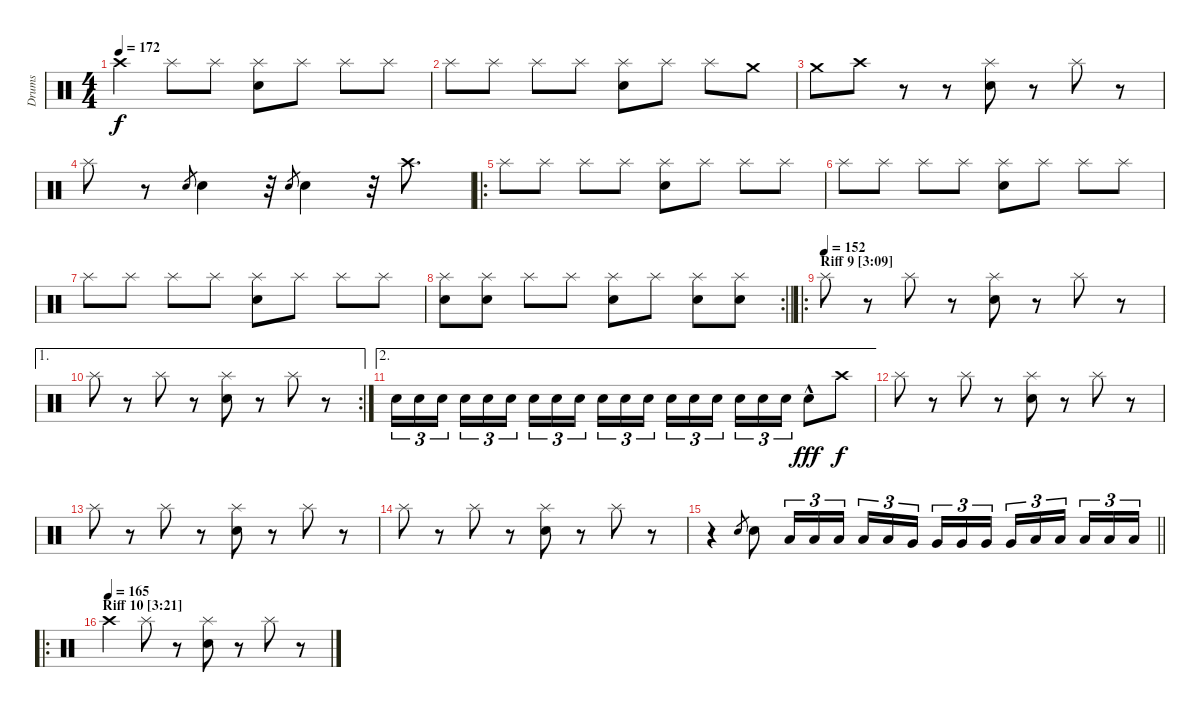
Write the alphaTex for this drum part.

\track ("Drums" "Drums") {instrument percussion}
\staff {score}
\articulation defaults
\ts (4 4)
\tempo 172
\clef neutral
\ks c "Crash high (hit)".4{dy f} "Splash (hit)".8 "Splash (hit)".8
("Splash (hit)" "Electric Snare (hit)").8 "Splash (hit)".8 "Splash (hit)".8 "Splash (hit)".8 |
"Splash (hit)".8 "Splash (hit)".8 "Splash (hit)".8 "Splash (hit)".8 ("Splash (hit)" "Electric Snare (hit)").8 "Splash (hit)".8 "Splash (hit)".8 "Crash medium (hit)".8 |
"Crash medium (hit)".8 "Crash high (hit)".8 r.8 r.8 ("Splash (hit)" "Electric Snare (hit)").8 r.8 "Splash (hit)".8 r.8 |
"Splash (hit)".8 r.8 "Electric Snare (hit)".8{gr} "Electric Snare (hit)".4 r.32 "Electric Snare (hit)".8{gr} "Electric Snare (hit)".4 r.32 "Crash high (hit)".8{d} |
\ro "Splash (hit)".8 "Splash (hit)".8 "Splash (hit)".8 "Splash (hit)".8
("Splash (hit)" "Electric Snare (hit)").8 "Splash (hit)".8 "Splash (hit)".8 "Splash (hit)".8 |
"Splash (hit)".8 "Splash (hit)".8 "Splash (hit)".8 "Splash (hit)".8 ("Splash (hit)" "Electric Snare (hit)").8 "Splash (hit)".8 "Splash (hit)".8 "Splash (hit)".8 |
"Splash (hit)".8 "Splash (hit)".8 "Splash (hit)".8 "Splash (hit)".8 ("Splash (hit)" "Electric Snare (hit)").8 "Splash (hit)".8 "Splash (hit)".8 "Splash (hit)".8 |
\rc 2
\barLineRight lightlight
("Splash (hit)" "Electric Snare (hit)").8 ("Splash (hit)" "Electric Snare (hit)").8 "Splash (hit)".8 "Splash (hit)".8 ("Splash (hit)" "Electric Snare (hit)").8 "Splash (hit)".8 ("Splash (hit)" "Electric Snare (hit)").8 ("Splash (hit)" "Electric Snare (hit)").8 |
\ro
\section ("" "Riff 9 [3:09]")
\tempo (152)
"Splash (hit)".8 r.8 "Splash (hit)".8 r.8 ("Splash (hit)" "Electric Snare (hit)").8 r.8 "Splash (hit)".8 r.8 |
\ae 1
\rc 2 "Splash (hit)".8
r.8 "Splash (hit)".8 r.8 ("Splash (hit)" "Electric Snare (hit)").8 r.8 "Splash (hit)".8 r.8 |
\ae 2 "Electric Snare (hit)".16{tu (3 2)} "Electric Snare (hit)".16{tu (3 2)} "Electric Snare (hit)".16{tu (3 2) beam splitsecondary} "Electric Snare (hit)".16{tu (3 2)} "Electric Snare (hit)".16{tu (3 2)} "Electric Snare (hit)".16{tu (3 2)} "Electric Snare (hit)".16{tu (3 2)} "Electric Snare (hit)".16{tu (3 2)} "Electric Snare (hit)".16{tu (3 2) beam splitsecondary} "Electric Snare (hit)".16{tu (3 2)} "Electric Snare (hit)".16{tu (3 2)} "Electric Snare (hit)".16{tu (3 2)} "Electric Snare (hit)".16{tu (3 2)} "Electric Snare (hit)".16{tu (3 2)} "Electric Snare (hit)".16{tu (3 2) beam splitsecondary} "Electric Snare (hit)".16{tu (3 2)} "Electric Snare (hit)".16{tu (3 2)} "Electric Snare (hit)".16{tu (3 2)} "Electric Snare (hit)"{hac}.8{dy fff} "Crash high (hit)".8{dy f}
|
"Splash (hit)".8 r.8 "Splash (hit)".8 r.8 ("Splash (hit)" "Electric Snare (hit)").8 r.8 "Splash (hit)".8 r.8 |
"Splash (hit)".8 r.8 "Splash (hit)".8 r.8 ("Splash (hit)" "Electric Snare (hit)").8 r.8 "Splash (hit)".8 r.8 |
"Splash (hit)".8 r.8 "Splash (hit)".8 r.8 ("Splash (hit)" "Electric Snare (hit)").8 r.8 "Splash (hit)".8 r.8 |
\barLineRight lightlight
r.4 "Electric Snare (hit)".8{gr} "Electric Snare (hit)".8 "Low Tom (hit)".16{tu (3 2)} "Low Tom (hit)".16{tu (3 2)} "Low Tom (hit)".16{tu (3 2)} "Low Tom (hit)".16{tu (3 2)} "Low Tom (hit)".16{tu (3 2)} "Very Low Tom (hit)".16{tu (3 2) beam splitsecondary} "Very Low Tom (hit)".16{tu (3 2)} "Very Low Tom (hit)".16{tu (3 2)} "Very Low Tom (hit)".16{tu (3 2)} "Very Low Tom (hit)".16{tu (3 2)} "Low Floor Tom (hit)".16{tu (3 2)} "Low Floor Tom (hit)".16{tu (3 2) beam splitsecondary} "Low Floor Tom (hit)".16{tu (3 2)} "Low Floor Tom (hit)".16{tu (3 2)} "Low Floor Tom (hit)".16{tu (3 2)} |
\ro
\section ("" "Riff 10 [3:21]")
\tempo (165)
"Crash high (hit)".4 "Splash (hit)".8 r.8 ("Splash (hit)" "Electric Snare (hit)").8 r.8 "Splash (hit)".8 r.8
